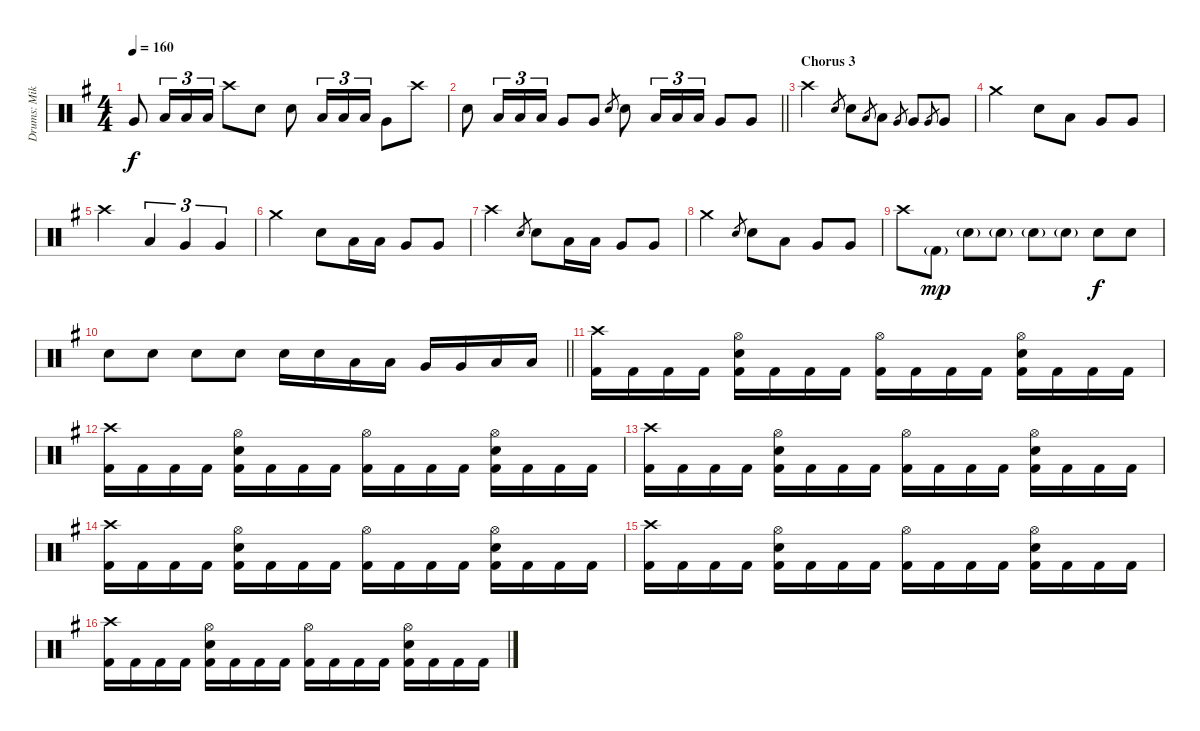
\track ("Drums: Mikko Korsbäck" "Drums: Mik") {instrument percussion}
\staff {score}
\articulation defaults
\ts (4 4)
\tempo 160
\clef neutral
\ks eminor "Very Low Tom (hit)".8{dy f} "Low Tom (hit)".16{tu (3 2)} "Low Tom (hit)".16{tu (3 2)} "Low Tom (hit)".16{tu (3 2)} "Crash high (hit)".8 "Electric Snare (hit)".8 "Electric Snare (hit)".8 "Low Tom (hit)".16{tu (3 2)} "Low Tom (hit)".16{tu (3 2)} "Low Tom (hit)".16{tu (3 2)} "Very Low Tom (hit)".8 "Crash high (hit)".8
|
\barLineRight lightlight "Electric Snare (hit)".8 "Low Tom (hit)".16{tu (3 2)} "Low Tom (hit)".16{tu (3 2)} "Low Tom (hit)".16{tu (3 2)} "Very Low Tom (hit)".8 "Very Low Tom (hit)".8 "Electric Snare (hit)".8{gr} "Electric Snare (hit)".8 "Low Tom (hit)".16{tu (3 2)} "Low Tom (hit)".16{tu (3 2)} "Low Tom (hit)".16{tu (3 2)} "Very Low Tom (hit)".8 "Very Low Tom (hit)".8
|
\section ("" "Chorus 3")
"Crash high (hit)".2 "Electric Snare (hit)".8{gr} "Electric Snare (hit)".8 "Low Tom (hit)".8{gr} "Low Tom (hit)".8 "Very Low Tom (hit)".8{gr} "Very Low Tom (hit)".8 "Very Low Tom (hit)".8{gr} "Very Low Tom (hit)".8 |
"Crash medium (hit)".2 "Electric Snare (hit)".8 "Low Tom (hit)".8 "Very Low Tom (hit)".8 "Very Low Tom (hit)".8 |
"Crash high (hit)".2 "Low Tom (hit)".4{tu (3 2)} "Very Low Tom (hit)".4{tu (3 2)} "Very Low Tom (hit)".4{tu (3 2)} |
"Crash medium (hit)".2 "Electric Snare (hit)".8 "Low Tom (hit)".16 "Low Tom (hit)".16 "Very Low Tom (hit)".8 "Very Low Tom (hit)".8 |
"Crash high (hit)".2 "Electric Snare (hit)".8{gr} "Electric Snare (hit)".8 "Low Tom (hit)".16 "Low Tom (hit)".16 "Very Low Tom (hit)".8 "Very Low Tom (hit)".8 |
"Crash medium (hit)".2 "Electric Snare (hit)".8{gr} "Electric Snare (hit)".8 "Low Tom (hit)".8 "Very Low Tom (hit)".8 "Very Low Tom (hit)".8 |
"Crash high (hit)".8 "Kick (hit) 2"{g}.8{dy mp} "Electric Snare (hit)"{g}.8 "Electric Snare (hit)"{g}.8 "Electric Snare (hit)"{g}.8 "Electric Snare (hit)"{g}.8 "Electric Snare (hit)".8{dy f} "Electric Snare (hit)".8 |
\barLineRight lightlight "Electric Snare (hit)".8 "Electric Snare (hit)".8 "Electric Snare (hit)".8 "Electric Snare (hit)".8 "Electric Snare (hit)".16 "Electric Snare (hit)".16 "Low Tom (hit)".16 "Low Tom (hit)".16 "Very Low Tom (hit)".16 "Very Low Tom (hit)".16 "Low Tom (hit)".16 "Low Tom (hit)".16
|
("Crash high (hit)" "Kick (hit) 2").16 "Kick (hit) 2".16 "Kick (hit) 2".16 "Kick (hit) 2".16 ("Hi-Hat (open)" "Electric Snare (hit)" "Kick (hit) 2").16 "Kick (hit) 2".16 "Kick (hit) 2".16 "Kick (hit) 2".16 ("Hi-Hat (open)" "Kick (hit) 2").16 "Kick (hit) 2".16 "Kick (hit) 2".16 "Kick (hit) 2".16 ("Hi-Hat (open)" "Electric Snare (hit)" "Kick (hit) 2").16 "Kick (hit) 2".16 "Kick (hit) 2".16 "Kick (hit) 2".16 |
("Crash high (hit)" "Kick (hit) 2").16 "Kick (hit) 2".16 "Kick (hit) 2".16 "Kick (hit) 2".16 ("Hi-Hat (open)" "Electric Snare (hit)" "Kick (hit) 2").16 "Kick (hit) 2".16 "Kick (hit) 2".16 "Kick (hit) 2".16 ("Hi-Hat (open)" "Kick (hit) 2").16 "Kick (hit) 2".16 "Kick (hit) 2".16 "Kick (hit) 2".16 ("Hi-Hat (open)" "Electric Snare (hit)" "Kick (hit) 2").16 "Kick (hit) 2".16 "Kick (hit) 2".16 "Kick (hit) 2".16 |
("Crash high (hit)" "Kick (hit) 2").16 "Kick (hit) 2".16 "Kick (hit) 2".16 "Kick (hit) 2".16 ("Hi-Hat (open)" "Electric Snare (hit)" "Kick (hit) 2").16 "Kick (hit) 2".16 "Kick (hit) 2".16 "Kick (hit) 2".16 ("Hi-Hat (open)" "Kick (hit) 2").16 "Kick (hit) 2".16 "Kick (hit) 2".16 "Kick (hit) 2".16 ("Hi-Hat (open)" "Electric Snare (hit)" "Kick (hit) 2").16 "Kick (hit) 2".16 "Kick (hit) 2".16 "Kick (hit) 2".16 |
("Crash high (hit)" "Kick (hit) 2").16 "Kick (hit) 2".16 "Kick (hit) 2".16 "Kick (hit) 2".16 ("Hi-Hat (open)" "Electric Snare (hit)" "Kick (hit) 2").16 "Kick (hit) 2".16 "Kick (hit) 2".16 "Kick (hit) 2".16 ("Hi-Hat (open)" "Kick (hit) 2").16 "Kick (hit) 2".16 "Kick (hit) 2".16 "Kick (hit) 2".16 ("Hi-Hat (open)" "Electric Snare (hit)" "Kick (hit) 2").16 "Kick (hit) 2".16 "Kick (hit) 2".16 "Kick (hit) 2".16 |
("Crash high (hit)" "Kick (hit) 2").16 "Kick (hit) 2".16 "Kick (hit) 2".16 "Kick (hit) 2".16 ("Hi-Hat (open)" "Electric Snare (hit)" "Kick (hit) 2").16 "Kick (hit) 2".16 "Kick (hit) 2".16 "Kick (hit) 2".16 ("Hi-Hat (open)" "Kick (hit) 2").16 "Kick (hit) 2".16 "Kick (hit) 2".16 "Kick (hit) 2".16 ("Hi-Hat (open)" "Electric Snare (hit)" "Kick (hit) 2").16 "Kick (hit) 2".16 "Kick (hit) 2".16 "Kick (hit) 2".16 |
("Crash high (hit)" "Kick (hit) 2").16 "Kick (hit) 2".16 "Kick (hit) 2".16 "Kick (hit) 2".16 ("Hi-Hat (open)" "Electric Snare (hit)" "Kick (hit) 2").16 "Kick (hit) 2".16 "Kick (hit) 2".16 "Kick (hit) 2".16 ("Hi-Hat (open)" "Kick (hit) 2").16 "Kick (hit) 2".16 "Kick (hit) 2".16 "Kick (hit) 2".16 ("Hi-Hat (open)" "Electric Snare (hit)" "Kick (hit) 2").16 "Kick (hit) 2".16 "Kick (hit) 2".16 "Kick (hit) 2".16
